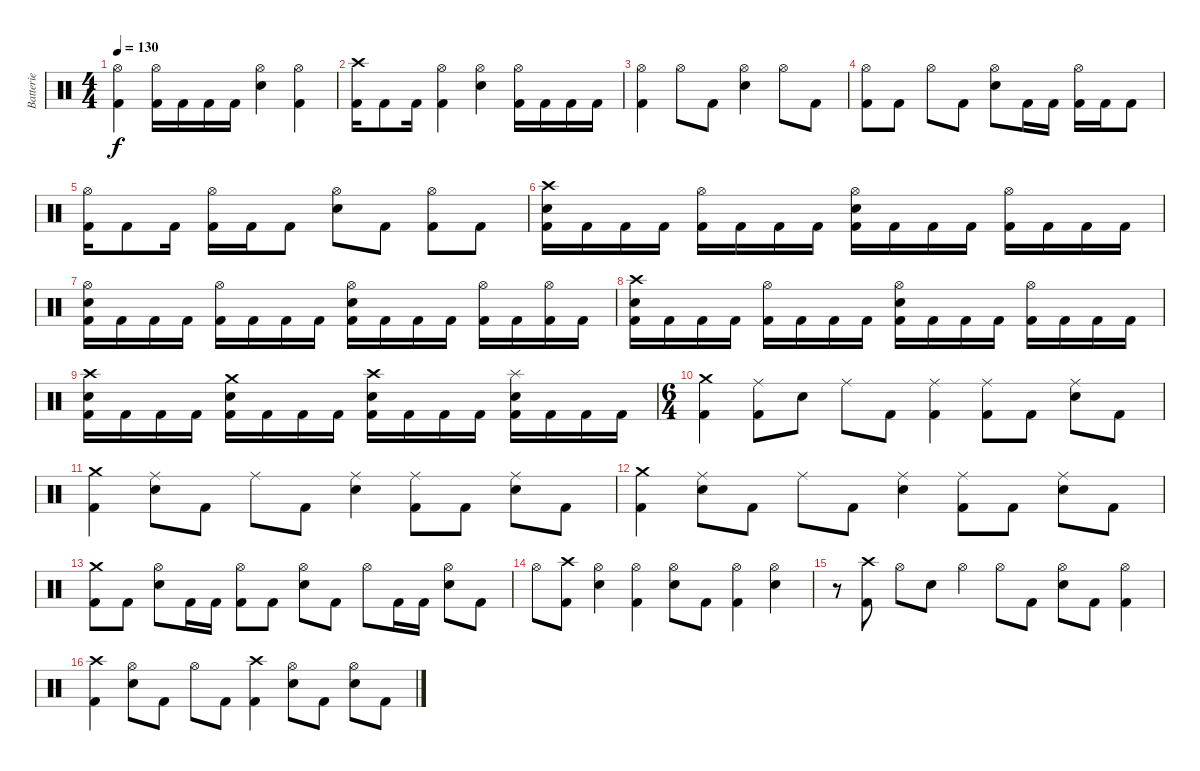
\track ("Batterie" "Batterie") {instrument percussion}
\staff {score}
\articulation defaults
\ts (4 4)
\tempo 130
\clef neutral
\ks c
("Hi-Hat (open)" "Kick (hit) 2").4{dy f} ("Hi-Hat (open)" "Kick (hit) 2").16 "Kick (hit) 2".16 "Kick (hit) 2".16 "Kick (hit) 2".16 ("Hi-Hat (open)" "Snare (hit) 2").4 ("Hi-Hat (open)" "Kick (hit) 2").4 |
("Crash high (hit)" "Kick (hit) 2").16 "Kick (hit) 2".8 "Kick (hit) 2".16 ("Hi-Hat (open)" "Kick (hit) 2").4 ("Hi-Hat (open)" "Snare (hit) 2").4 ("Hi-Hat (open)" "Kick (hit) 2").16 "Kick (hit) 2".16 "Kick (hit) 2".16 "Kick (hit) 2".16 |
("Hi-Hat (open)" "Kick (hit) 2").4 "Hi-Hat (open)".8 "Kick (hit) 2".8 ("Hi-Hat (open)" "Snare (hit) 2").4 "Hi-Hat (open)".8 "Kick (hit) 2".8 |
("Hi-Hat (open)" "Kick (hit) 2").8 "Kick (hit) 2".8 "Hi-Hat (open)".8 "Kick (hit) 2".8 ("Hi-Hat (open)" "Snare (hit) 2").8 "Kick (hit) 2".16 "Kick (hit) 2".16 ("Hi-Hat (open)" "Kick (hit) 2").16 "Kick (hit) 2".16 "Kick (hit) 2".8 |
("Hi-Hat (open)" "Kick (hit) 2").16 "Kick (hit) 2".8 "Kick (hit) 2".16 ("Hi-Hat (open)" "Kick (hit) 2").16 "Kick (hit) 2".16 "Kick (hit) 2".8 ("Hi-Hat (open)" "Snare (hit) 2").8 "Kick (hit) 2".8 ("Hi-Hat (open)" "Kick (hit) 2").8 "Kick (hit) 2".8 |
("Crash high (hit)" "Snare (hit) 2" "Kick (hit) 2").16 "Kick (hit) 2".16 "Kick (hit) 2".16 "Kick (hit) 2".16 ("Hi-Hat (open)" "Kick (hit) 2").16 "Kick (hit) 2".16 "Kick (hit) 2".16 "Kick (hit) 2".16 ("Hi-Hat (open)" "Snare (hit) 2" "Kick (hit) 2").16 "Kick (hit) 2".16 "Kick (hit) 2".16 "Kick (hit) 2".16 ("Hi-Hat (open)" "Kick (hit) 2").16 "Kick (hit) 2".16 "Kick (hit) 2".16 "Kick (hit) 2".16 |
("Hi-Hat (open)" "Snare (hit) 2" "Kick (hit) 2").16 "Kick (hit) 2".16 "Kick (hit) 2".16 "Kick (hit) 2".16 ("Hi-Hat (open)" "Kick (hit) 2").16 "Kick (hit) 2".16 "Kick (hit) 2".16 "Kick (hit) 2".16 ("Hi-Hat (open)" "Snare (hit) 2" "Kick (hit) 2").16 "Kick (hit) 2".16 "Kick (hit) 2".16 "Kick (hit) 2".16 ("Hi-Hat (open)" "Kick (hit) 2").16 "Kick (hit) 2".16 ("Hi-Hat (open)" "Kick (hit) 2").16 "Kick (hit) 2".16 |
("Crash high (hit)" "Snare (hit) 2" "Kick (hit) 2").16 "Kick (hit) 2".16 "Kick (hit) 2".16 "Kick (hit) 2".16 ("Hi-Hat (open)" "Kick (hit) 2").16 "Kick (hit) 2".16 "Kick (hit) 2".16 "Kick (hit) 2".16 ("Hi-Hat (open)" "Snare (hit) 2" "Kick (hit) 2").16 "Kick (hit) 2".16 "Kick (hit) 2".16 "Kick (hit) 2".16 ("Hi-Hat (open)" "Kick (hit) 2").16 "Kick (hit) 2".16 "Kick (hit) 2".16 "Kick (hit) 2".16 |
("Crash high (hit)" "Snare (hit) 2" "Kick (hit) 2").16 "Kick (hit) 2".16 "Kick (hit) 2".16 "Kick (hit) 2".16 ("Crash medium (hit)" "Snare (hit) 2" "Kick (hit) 2").16 "Kick (hit) 2".16 "Kick (hit) 2".16 "Kick (hit) 2".16 ("Crash high (hit)" "Snare (hit) 2" "Kick (hit) 2").16 "Kick (hit) 2".16 "Kick (hit) 2".16 "Kick (hit) 2".16 ("Splash (hit)" "Snare (hit) 2" "Kick (hit) 2").16 "Kick (hit) 2".16 "Kick (hit) 2".16 "Kick (hit) 2".16 |
\ts (6 4)
("Crash medium (hit)" "Kick (hit) 2").4 ("Ride (middle)" "Kick (hit) 2").8 "Snare (hit) 2".8 "Ride (middle)".8 "Kick (hit) 2".8 ("Ride (middle)" "Kick (hit) 2").4 ("Ride (middle)" "Kick (hit) 2").8 "Kick (hit) 2".8 ("Ride (middle)" "Snare (hit) 2").8 "Kick (hit) 2".8 |
("Crash medium (hit)" "Kick (hit) 2").4 ("Ride (middle)" "Snare (hit) 2").8 "Kick (hit) 2".8 "Ride (middle)".8 "Kick (hit) 2".8 ("Ride (middle)" "Snare (hit) 2").4 ("Ride (middle)" "Kick (hit) 2").8 "Kick (hit) 2".8 ("Ride (middle)" "Snare (hit) 2").8 "Kick (hit) 2".8 |
("Crash medium (hit)" "Kick (hit) 2").4 ("Ride (middle)" "Snare (hit) 2").8 "Kick (hit) 2".8 "Ride (middle)".8 "Kick (hit) 2".8 ("Ride (middle)" "Snare (hit) 2").4 ("Ride (middle)" "Kick (hit) 2").8 "Kick (hit) 2".8 ("Ride (middle)" "Snare (hit) 2").8 "Kick (hit) 2".8 |
("Crash medium (hit)" "Kick (hit) 2").8 "Kick (hit) 2".8 ("Hi-Hat (open)" "Snare (hit) 2").8 "Kick (hit) 2".16 "Kick (hit) 2".16 ("Hi-Hat (open)" "Kick (hit) 2").8 "Kick (hit) 2".8 ("Hi-Hat (open)" "Snare (hit) 2").8 "Kick (hit) 2".8 "Hi-Hat (open)".8 "Kick (hit) 2".16 "Kick (hit) 2".16 ("Hi-Hat (open)" "Snare (hit) 2").8 "Kick (hit) 2".8 |
"Hi-Hat (open)".8 ("Crash high (hit)" "Kick (hit) 2").8 ("Hi-Hat (open)" "Snare (hit) 2").4 ("Hi-Hat (open)" "Kick (hit) 2").4 ("Hi-Hat (open)" "Snare (hit) 2").8 "Kick (hit) 2".8 ("Hi-Hat (open)" "Kick (hit) 2").4 ("Hi-Hat (open)" "Snare (hit) 2").4 |
r.8 ("Crash high (hit)" "Kick (hit) 2").8 "Hi-Hat (open)".8 "Snare (hit) 2".8 "Hi-Hat (open)".4 "Hi-Hat (open)".8 "Kick (hit) 2".8 ("Hi-Hat (open)" "Snare (hit) 2").8 "Kick (hit) 2".8 ("Hi-Hat (open)" "Kick (hit) 2").4 |
("Crash high (hit)" "Kick (hit) 2").4 ("Hi-Hat (open)" "Snare (hit) 2").8 "Kick (hit) 2".8 "Hi-Hat (open)".8 "Kick (hit) 2".8 ("Crash high (hit)" "Kick (hit) 2").4 ("Hi-Hat (open)" "Snare (hit) 2").8 "Kick (hit) 2".8 ("Hi-Hat (open)" "Snare (hit) 2").8 "Kick (hit) 2".8
